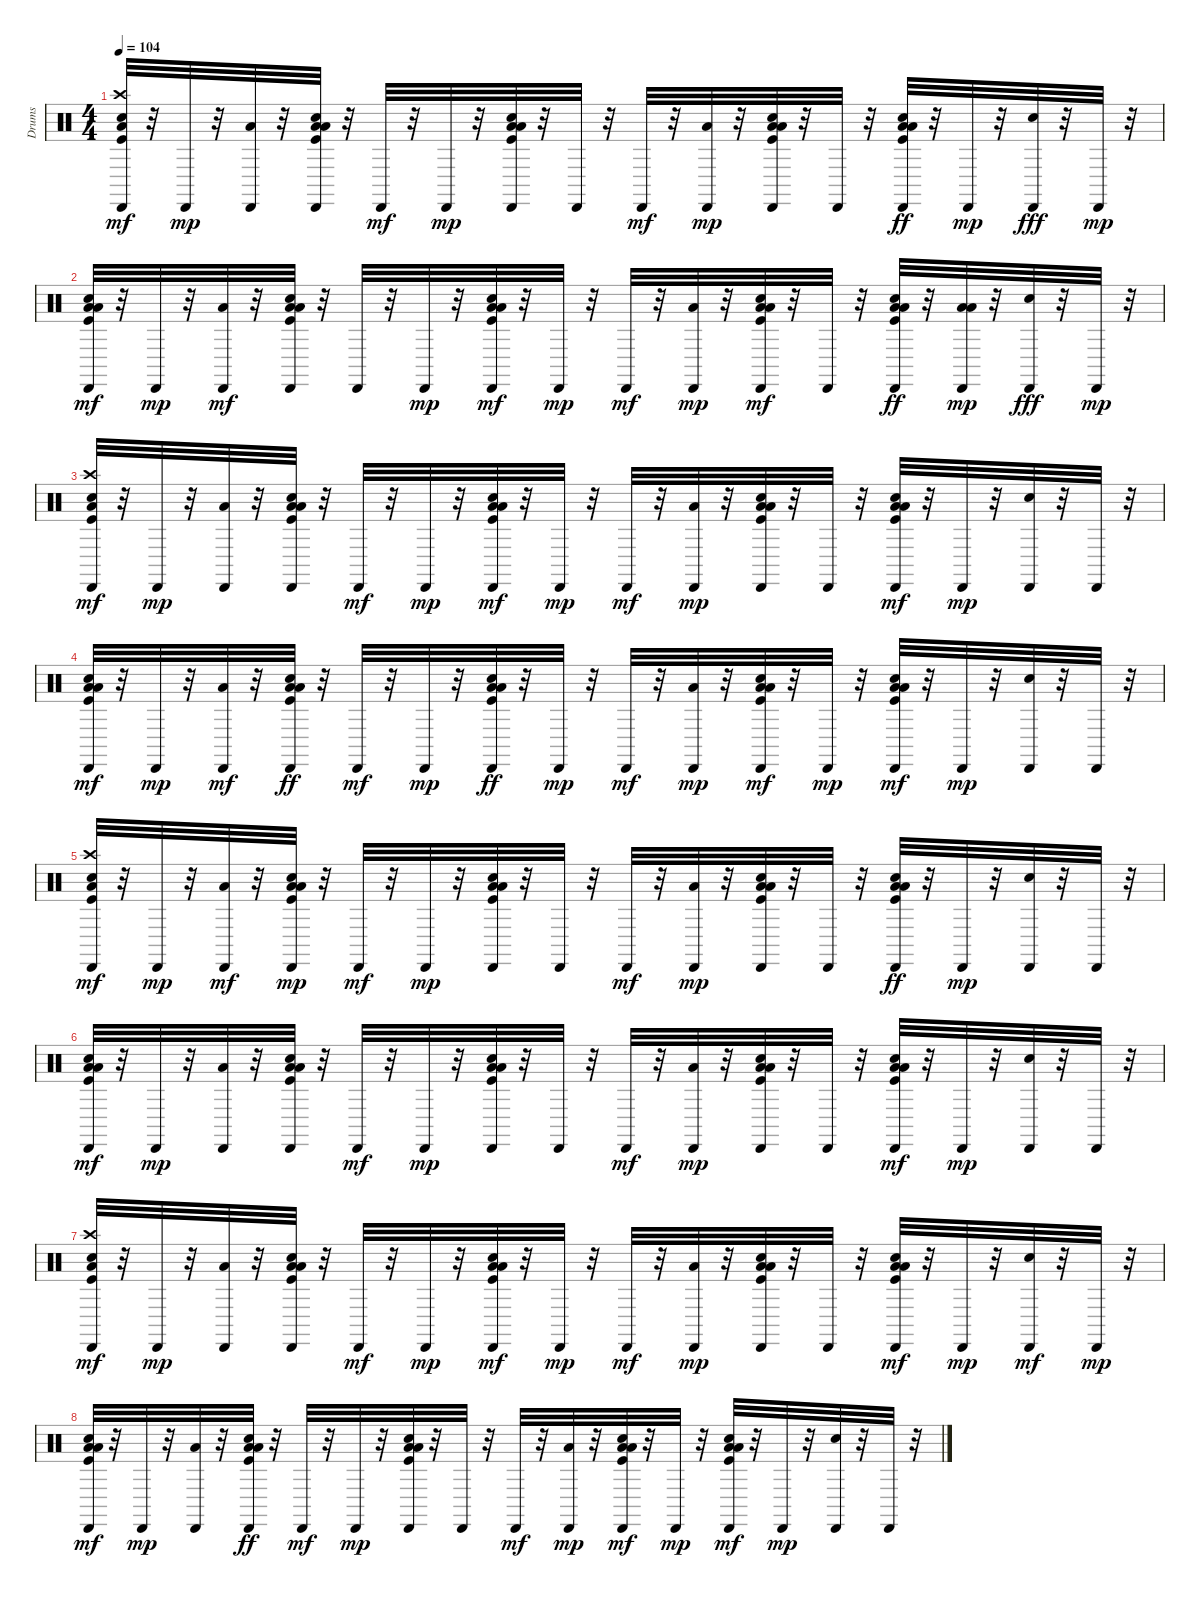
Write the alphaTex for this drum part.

\track ("Drums" "Drums") {instrument percussion}
\staff {score}
\articulation defaults
\ts (4 4)
\tempo 104
\clef neutral
\ks c
("Crash high (hit)" "Low Floor Tom (hit)" "Kick (hit)" "Hand Clap (hit)" "Cabasa (hit)").32{dy mf} r.32 "Cabasa (hit)".32{dy mp} r.32 ("Low Tom (hit)" "Cabasa (hit)").32 r.32 ("Low Tom (hit)" "Kick (hit)" "Cabasa (hit)" "Low Floor Tom (hit)" "Hand Clap (hit)").32 r.32 "Cabasa (hit)".32{dy mf} r.32 "Cabasa (hit)".32{dy mp} r.32 ("Hand Clap (hit)" "Low Tom (hit)" "Low Floor Tom (hit)" "Kick (hit)" "Cabasa (hit)").32 r.32 "Cabasa (hit)".32 r.32 "Cabasa (hit)".32{dy mf} r.32 ("Low Tom (hit)" "Cabasa (hit)").32{dy mp} r.32 ("Hand Clap (hit)" "Low Tom (hit)" "Low Floor Tom (hit)" "Kick (hit)" "Cabasa (hit)").32 r.32 "Cabasa (hit)".32 r.32 ("Hand Clap (hit)" "Low Tom (hit)" "Kick (hit)" "Cabasa (hit)" "Low Floor Tom (hit)").32{dy ff} r.32 "Cabasa (hit)".32{dy mp} r.32 ("Cabasa (hit)" "Snare (hit) 2").32{dy fff} r.32 "Cabasa (hit)".32{dy mp} r.32 |
("Low Floor Tom (hit)" "Hand Clap (hit)" "Cabasa (hit)" "Low Tom (hit)" "Kick (hit)").32{dy mf} r.32 "Cabasa (hit)".32{dy mp} r.32 ("Cabasa (hit)" "Low Tom (hit)").32{dy mf} r.32 ("Cabasa (hit)" "Low Tom (hit)" "Low Floor Tom (hit)" "Kick (hit)" "Hand Clap (hit)").32 r.32 "Cabasa (hit)".32 r.32 "Cabasa (hit)".32{dy mp} r.32 ("Low Tom (hit)" "Low Floor Tom (hit)" "Hand Clap (hit)" "Cabasa (hit)" "Kick (hit)").32{dy mf} r.32 "Cabasa (hit)".32{dy mp} r.32 "Cabasa (hit)".32{dy mf} r.32 ("Cabasa (hit)" "Low Tom (hit)").32{dy mp} r.32 ("Low Tom (hit)" "Low Floor Tom (hit)" "Kick (hit)" "Hand Clap (hit)" "Cabasa (hit)").32{dy mf} r.32 "Cabasa (hit)".32 r.32 ("Kick (hit)" "Cabasa (hit)" "Low Tom (hit)" "Hand Clap (hit)" "Low Floor Tom (hit)").32{dy ff} r.32 ("Cabasa (hit)" "Low Tom (hit)" "Low Floor Tom (hit)").32{dy mp} r.32 ("Cabasa (hit)" "Snare (hit) 2").32{dy fff} r.32 "Cabasa (hit)".32{dy mp} r.32 |
("Crash high (hit)" "Low Floor Tom (hit)" "Hand Clap (hit)" "Cabasa (hit)" "Kick (hit)").32{dy mf} r.32 "Cabasa (hit)".32{dy mp} r.32 ("Cabasa (hit)" "Low Tom (hit)").32 r.32 ("Kick (hit)" "Cabasa (hit)" "Low Floor Tom (hit)" "Low Tom (hit)" "Hand Clap (hit)").32 r.32 "Cabasa (hit)".32{dy mf} r.32 "Cabasa (hit)".32{dy mp} r.32 ("Cabasa (hit)" "Low Floor Tom (hit)" "Low Tom (hit)" "Kick (hit)" "Hand Clap (hit)").32{dy mf} r.32 "Cabasa (hit)".32{dy mp} r.32 "Cabasa (hit)".32{dy mf} r.32 ("Cabasa (hit)" "Low Tom (hit)").32{dy mp} r.32 ("Low Floor Tom (hit)" "Low Tom (hit)" "Kick (hit)" "Cabasa (hit)" "Hand Clap (hit)").32 r.32 "Cabasa (hit)".32 r.32 ("Low Floor Tom (hit)" "Low Tom (hit)" "Kick (hit)" "Cabasa (hit)" "Hand Clap (hit)").32{dy mf} r.32 "Cabasa (hit)".32{dy mp} r.32 ("Snare (hit) 2" "Cabasa (hit)").32 r.32 "Cabasa (hit)".32 r.32 |
("Hand Clap (hit)" "Cabasa (hit)" "Low Tom (hit)" "Low Floor Tom (hit)" "Kick (hit)").32{dy mf} r.32 "Cabasa (hit)".32{dy mp} r.32 ("Cabasa (hit)" "Low Tom (hit)").32{dy mf} r.32 ("Low Tom (hit)" "Kick (hit)" "Cabasa (hit)" "Hand Clap (hit)" "Low Floor Tom (hit)").32{dy ff} r.32 "Cabasa (hit)".32{dy mf} r.32 "Cabasa (hit)".32{dy mp} r.32 ("Low Tom (hit)" "Kick (hit)" "Hand Clap (hit)" "Cabasa (hit)" "Low Floor Tom (hit)").32{dy ff} r.32 "Cabasa (hit)".32{dy mp} r.32 "Cabasa (hit)".32{dy mf} r.32 ("Low Tom (hit)" "Cabasa (hit)").32{dy mp} r.32 ("Hand Clap (hit)" "Low Tom (hit)" "Low Floor Tom (hit)" "Kick (hit)" "Cabasa (hit)").32{dy mf} r.32 "Cabasa (hit)".32{dy mp} r.32 ("Low Floor Tom (hit)" "Low Tom (hit)" "Kick (hit)" "Hand Clap (hit)" "Cabasa (hit)").32{dy mf} r.32 "Cabasa (hit)".32{dy mp} r.32 ("Snare (hit) 2" "Cabasa (hit)").32 r.32 "Cabasa (hit)".32 r.32 |
("Crash high (hit)" "Low Floor Tom (hit)" "Kick (hit)" "Cabasa (hit)" "Hand Clap (hit)").32{dy mf} r.32 "Cabasa (hit)".32{dy mp} r.32 ("Cabasa (hit)" "Low Tom (hit)").32{dy mf} r.32 ("Low Tom (hit)" "Kick (hit)" "Cabasa (hit)" "Hand Clap (hit)" "Low Floor Tom (hit)").32{dy mp} r.32 "Cabasa (hit)".32{dy mf} r.32 "Cabasa (hit)".32{dy mp} r.32 ("Low Tom (hit)" "Low Floor Tom (hit)" "Kick (hit)" "Hand Clap (hit)" "Cabasa (hit)").32 r.32 "Cabasa (hit)".32 r.32 "Cabasa (hit)".32{dy mf} r.32 ("Low Tom (hit)" "Cabasa (hit)").32{dy mp} r.32 ("Hand Clap (hit)" "Low Tom (hit)" "Low Floor Tom (hit)" "Kick (hit)" "Cabasa (hit)").32 r.32 "Cabasa (hit)".32 r.32 ("Low Tom (hit)" "Kick (hit)" "Hand Clap (hit)" "Cabasa (hit)" "Low Floor Tom (hit)").32{dy ff} r.32 "Cabasa (hit)".32{dy mp} r.32 ("Snare (hit) 2" "Cabasa (hit)").32 r.32 "Cabasa (hit)".32 r.32 |
("Hand Clap (hit)" "Low Floor Tom (hit)" "Low Tom (hit)" "Kick (hit)" "Cabasa (hit)").32{dy mf} r.32 "Cabasa (hit)".32{dy mp} r.32 ("Low Tom (hit)" "Cabasa (hit)").32 r.32 ("Low Tom (hit)" "Low Floor Tom (hit)" "Kick (hit)" "Hand Clap (hit)" "Cabasa (hit)").32 r.32 "Cabasa (hit)".32{dy mf} r.32 "Cabasa (hit)".32{dy mp} r.32 ("Low Tom (hit)" "Low Floor Tom (hit)" "Kick (hit)" "Hand Clap (hit)" "Cabasa (hit)").32 r.32 "Cabasa (hit)".32 r.32 "Cabasa (hit)".32{dy mf} r.32 ("Low Tom (hit)" "Cabasa (hit)").32{dy mp} r.32 ("Low Tom (hit)" "Low Floor Tom (hit)" "Kick (hit)" "Hand Clap (hit)" "Cabasa (hit)").32 r.32 "Cabasa (hit)".32 r.32 ("Kick (hit)" "Low Tom (hit)" "Low Floor Tom (hit)" "Hand Clap (hit)" "Cabasa (hit)").32{dy mf} r.32 "Cabasa (hit)".32{dy mp} r.32 ("Snare (hit) 2" "Cabasa (hit)").32 r.32 "Cabasa (hit)".32 r.32 |
("Low Floor Tom (hit)" "Hand Clap (hit)" "Crash high (hit)" "Kick (hit)" "Cabasa (hit)").32{dy mf} r.32 "Cabasa (hit)".32{dy mp} r.32 ("Cabasa (hit)" "Low Tom (hit)").32 r.32 ("Kick (hit)" "Hand Clap (hit)" "Cabasa (hit)" "Low Floor Tom (hit)" "Low Tom (hit)").32 r.32 "Cabasa (hit)".32{dy mf} r.32 "Cabasa (hit)".32{dy mp} r.32 ("Low Floor Tom (hit)" "Low Tom (hit)" "Kick (hit)" "Hand Clap (hit)" "Cabasa (hit)").32{dy mf} r.32 "Cabasa (hit)".32{dy mp} r.32 "Cabasa (hit)".32{dy mf} r.32 ("Low Tom (hit)" "Cabasa (hit)").32{dy mp} r.32 ("Low Floor Tom (hit)" "Low Tom (hit)" "Kick (hit)" "Hand Clap (hit)" "Cabasa (hit)").32 r.32 "Cabasa (hit)".32 r.32 ("Low Floor Tom (hit)" "Low Tom (hit)" "Kick (hit)" "Hand Clap (hit)" "Cabasa (hit)").32{dy mf} r.32 "Cabasa (hit)".32{dy mp} r.32 ("Snare (hit) 2" "Cabasa (hit)").32{dy mf} r.32 "Cabasa (hit)".32{dy mp} r.32 |
("Hand Clap (hit)" "Cabasa (hit)" "Low Tom (hit)" "Low Floor Tom (hit)" "Kick (hit)").32{dy mf} r.32 "Cabasa (hit)".32{dy mp} r.32 ("Low Tom (hit)" "Cabasa (hit)").32 r.32 ("Low Tom (hit)" "Kick (hit)" "Cabasa (hit)" "Hand Clap (hit)" "Low Floor Tom (hit)").32{dy ff} r.32 "Cabasa (hit)".32{dy mf} r.32 "Cabasa (hit)".32{dy mp} r.32 ("Hand Clap (hit)" "Low Tom (hit)" "Kick (hit)" "Low Floor Tom (hit)" "Cabasa (hit)").32 r.32 "Cabasa (hit)".32 r.32 "Cabasa (hit)".32{dy mf} r.32 ("Low Tom (hit)" "Cabasa (hit)").32{dy mp} r.32 ("Hand Clap (hit)" "Low Tom (hit)" "Low Floor Tom (hit)" "Kick (hit)" "Cabasa (hit)").32{dy mf} r.32 "Cabasa (hit)".32{dy mp} r.32 ("Low Floor Tom (hit)" "Low Tom (hit)" "Kick (hit)" "Hand Clap (hit)" "Cabasa (hit)").32{dy mf} r.32 "Cabasa (hit)".32{dy mp} r.32 ("Snare (hit) 2" "Cabasa (hit)").32 r.32 "Cabasa (hit)".32 r.32
